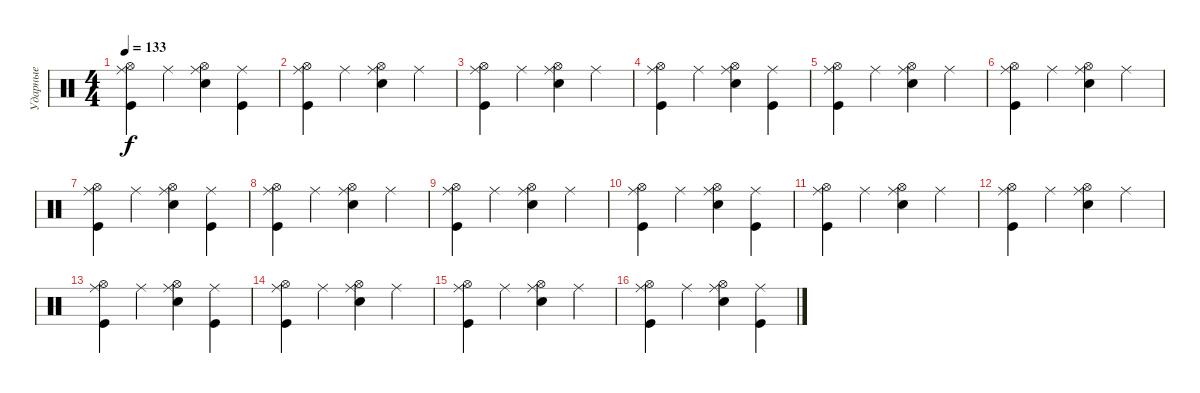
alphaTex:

\track ("Ударные" "Ударные") {instrument percussion}
\staff {score}
\articulation defaults
\ts (4 4)
\tempo 133
\clef neutral
\ks c
("Hi-Hat (open)" "Kick (hit)" "Ride (middle)").4{dy f} "Ride (middle)".4 ("Hi-Hat (open)" "Electric Snare (hit)" "Ride (middle)").4 ("Kick (hit)" "Ride (middle)").4 |
("Hi-Hat (open)" "Kick (hit)" "Ride (middle)").4 "Ride (middle)".4 ("Hi-Hat (open)" "Electric Snare (hit)" "Ride (middle)").4 "Ride (middle)".4 |
("Hi-Hat (open)" "Kick (hit)" "Ride (middle)").4 "Ride (middle)".4 ("Hi-Hat (open)" "Electric Snare (hit)" "Ride (middle)").4 "Ride (middle)".4 |
("Hi-Hat (open)" "Kick (hit)" "Ride (middle)").4 "Ride (middle)".4 ("Hi-Hat (open)" "Electric Snare (hit)" "Ride (middle)").4 ("Kick (hit)" "Ride (middle)").4 |
("Hi-Hat (open)" "Kick (hit)" "Ride (middle)").4 "Ride (middle)".4 ("Hi-Hat (open)" "Electric Snare (hit)" "Ride (middle)").4 "Ride (middle)".4 |
("Hi-Hat (open)" "Kick (hit)" "Ride (middle)").4 "Ride (middle)".4 ("Hi-Hat (open)" "Electric Snare (hit)" "Ride (middle)").4 "Ride (middle)".4 |
("Hi-Hat (open)" "Kick (hit)" "Ride (middle)").4 "Ride (middle)".4 ("Hi-Hat (open)" "Electric Snare (hit)" "Ride (middle)").4 ("Kick (hit)" "Ride (middle)").4 |
("Hi-Hat (open)" "Kick (hit)" "Ride (middle)").4 "Ride (middle)".4 ("Hi-Hat (open)" "Electric Snare (hit)" "Ride (middle)").4 "Ride (middle)".4 |
("Hi-Hat (open)" "Kick (hit)" "Ride (middle)").4 "Ride (middle)".4 ("Hi-Hat (open)" "Electric Snare (hit)" "Ride (middle)").4 "Ride (middle)".4 |
("Hi-Hat (open)" "Kick (hit)" "Ride (middle)").4 "Ride (middle)".4 ("Hi-Hat (open)" "Electric Snare (hit)" "Ride (middle)").4 ("Kick (hit)" "Ride (middle)").4 |
("Hi-Hat (open)" "Kick (hit)" "Ride (middle)").4 "Ride (middle)".4 ("Hi-Hat (open)" "Electric Snare (hit)" "Ride (middle)").4 "Ride (middle)".4 |
("Hi-Hat (open)" "Kick (hit)" "Ride (middle)").4 "Ride (middle)".4 ("Hi-Hat (open)" "Electric Snare (hit)" "Ride (middle)").4 "Ride (middle)".4 |
("Hi-Hat (open)" "Kick (hit)" "Ride (middle)").4 "Ride (middle)".4 ("Hi-Hat (open)" "Electric Snare (hit)" "Ride (middle)").4 ("Kick (hit)" "Ride (middle)").4 |
("Hi-Hat (open)" "Kick (hit)" "Ride (middle)").4 "Ride (middle)".4 ("Hi-Hat (open)" "Electric Snare (hit)" "Ride (middle)").4 "Ride (middle)".4 |
("Hi-Hat (open)" "Kick (hit)" "Ride (middle)").4 "Ride (middle)".4 ("Hi-Hat (open)" "Electric Snare (hit)" "Ride (middle)").4 "Ride (middle)".4 |
("Hi-Hat (open)" "Kick (hit)" "Ride (middle)").4 "Ride (middle)".4 ("Hi-Hat (open)" "Electric Snare (hit)" "Ride (middle)").4 ("Kick (hit)" "Ride (middle)").4
